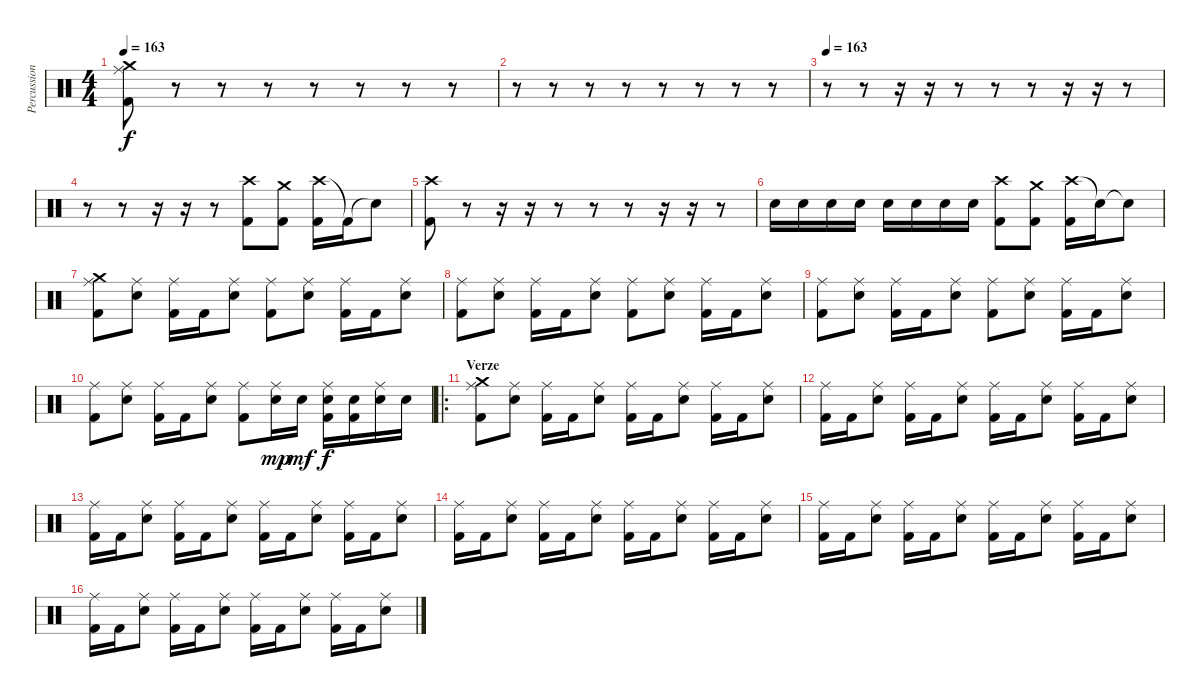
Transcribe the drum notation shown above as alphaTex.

\track ("Percussion" "Percussion") {instrument percussion}
\staff {score}
\articulation defaults
\ts (4 4)
\tempo 163
\clef neutral
\ks c
("Ride (middle)" "Crash medium (hit)" "Kick (hit) 2").8{dy f} r.8 r.8 r.8 r.8 r.8 r.8 r.8 |
r.8 r.8 r.8 r.8 r.8 r.8 r.8 r.8 |
\tempo 163
r.8 r.8 r.16 r.16 r.8 r.8 r.8 r.16 r.16 r.8 |
r.8 r.8 r.16 r.16 r.8 ("Crash high (hit)" "Kick (hit) 2").8 ("Crash medium (hit)" "Kick (hit) 2").8 ("Crash high (hit)" "Kick (hit) 2").16 "Kick (hit) 2"{t}.16 "Snare (hit)"{t}.8 |
("Crash high (hit)" "Kick (hit) 2").8 r.8 r.16 r.16 r.8 r.8 r.8 r.16 r.16 r.8 |
"Electric Snare (hit)".16 "Electric Snare (hit)".16 "Electric Snare (hit)".16 "Electric Snare (hit)".16 "Electric Snare (hit)".16 "Electric Snare (hit)".16 "Electric Snare (hit)".16 "Electric Snare (hit)".16 ("Crash high (hit)" "Kick (hit) 2").8 ("Crash medium (hit)" "Kick (hit) 2").8 ("Crash high (hit)" "Kick (hit) 2").16 "Snare (hit)"{t}.16 "Snare (hit)"{t}.8 |
("Ride (middle)" "Crash medium (hit)" "Kick (hit) 2").8 ("Ride (middle)" "Electric Snare (hit)").8 ("Ride (middle)" "Kick (hit) 2").16 "Kick (hit) 2".16 ("Ride (middle)" "Electric Snare (hit)").8 ("Ride (middle)" "Kick (hit) 2").8 ("Ride (middle)" "Electric Snare (hit)").8 ("Ride (middle)" "Kick (hit) 2").16 "Kick (hit) 2".16 ("Ride (middle)" "Electric Snare (hit)").8 |
("Ride (middle)" "Kick (hit) 2").8 ("Ride (middle)" "Electric Snare (hit)").8 ("Ride (middle)" "Kick (hit) 2").16 "Kick (hit) 2".16 ("Ride (middle)" "Electric Snare (hit)").8 ("Ride (middle)" "Kick (hit) 2").8 ("Ride (middle)" "Electric Snare (hit)").8 ("Ride (middle)" "Kick (hit) 2").16 "Kick (hit) 2".16 ("Ride (middle)" "Electric Snare (hit)").8 |
("Ride (middle)" "Kick (hit) 2").8 ("Ride (middle)" "Electric Snare (hit)").8 ("Ride (middle)" "Kick (hit) 2").16 "Kick (hit) 2".16 ("Ride (middle)" "Electric Snare (hit)").8 ("Ride (middle)" "Kick (hit) 2").8 ("Ride (middle)" "Electric Snare (hit)").8 ("Ride (middle)" "Kick (hit) 2").16 "Kick (hit) 2".16 ("Ride (middle)" "Electric Snare (hit)").8 |
("Ride (middle)" "Kick (hit) 2").8 ("Ride (middle)" "Electric Snare (hit)").8 ("Ride (middle)" "Kick (hit) 2").16 "Kick (hit) 2".16 ("Ride (middle)" "Electric Snare (hit)").8 ("Ride (middle)" "Kick (hit) 2").8 ("Ride (middle)" "Electric Snare (hit)").16{dy mp} "Electric Snare (hit)".16{dy mf} ("Ride (middle)" "Kick (hit) 2" "Electric Snare (hit)").16{dy f} ("Kick (hit) 2" "Electric Snare (hit)").16 ("Ride (middle)" "Electric Snare (hit)").16 "Electric Snare (hit)".16 |
\ro
\section ("" "Verze")
("Ride (middle)" "Crash medium (hit)" "Kick (hit) 2").8 ("Ride (middle)" "Electric Snare (hit)").8 ("Ride (middle)" "Kick (hit) 2").16 "Kick (hit) 2".16 ("Ride (middle)" "Electric Snare (hit)").8 ("Ride (middle)" "Kick (hit) 2").16 "Kick (hit) 2".16 ("Ride (middle)" "Electric Snare (hit)").8 ("Ride (middle)" "Kick (hit) 2").16 "Kick (hit) 2".16 ("Ride (middle)" "Electric Snare (hit)").8 |
("Ride (middle)" "Kick (hit) 2").16 "Kick (hit) 2".16 ("Ride (middle)" "Electric Snare (hit)").8 ("Ride (middle)" "Kick (hit) 2").16 "Kick (hit) 2".16 ("Ride (middle)" "Electric Snare (hit)").8 ("Ride (middle)" "Kick (hit) 2").16 "Kick (hit) 2".16 ("Ride (middle)" "Electric Snare (hit)").8 ("Ride (middle)" "Kick (hit) 2").16 "Kick (hit) 2".16 ("Ride (middle)" "Electric Snare (hit)").8 |
("Ride (middle)" "Kick (hit) 2").16 "Kick (hit) 2".16 ("Ride (middle)" "Electric Snare (hit)").8 ("Ride (middle)" "Kick (hit) 2").16 "Kick (hit) 2".16 ("Ride (middle)" "Electric Snare (hit)").8 ("Ride (middle)" "Kick (hit) 2").16 "Kick (hit) 2".16 ("Ride (middle)" "Electric Snare (hit)").8 ("Ride (middle)" "Kick (hit) 2").16 "Kick (hit) 2".16 ("Ride (middle)" "Electric Snare (hit)").8 |
("Ride (middle)" "Kick (hit) 2").16 "Kick (hit) 2".16 ("Ride (middle)" "Electric Snare (hit)").8 ("Ride (middle)" "Kick (hit) 2").16 "Kick (hit) 2".16 ("Ride (middle)" "Electric Snare (hit)").8 ("Ride (middle)" "Kick (hit) 2").16 "Kick (hit) 2".16 ("Ride (middle)" "Electric Snare (hit)").8 ("Ride (middle)" "Kick (hit) 2").16 "Kick (hit) 2".16 ("Ride (middle)" "Electric Snare (hit)").8 |
("Ride (middle)" "Kick (hit) 2").16 "Kick (hit) 2".16 ("Ride (middle)" "Electric Snare (hit)").8 ("Ride (middle)" "Kick (hit) 2").16 "Kick (hit) 2".16 ("Ride (middle)" "Electric Snare (hit)").8 ("Ride (middle)" "Kick (hit) 2").16 "Kick (hit) 2".16 ("Ride (middle)" "Electric Snare (hit)").8 ("Ride (middle)" "Kick (hit) 2").16 "Kick (hit) 2".16 ("Ride (middle)" "Electric Snare (hit)").8 |
("Ride (middle)" "Kick (hit) 2").16 "Kick (hit) 2".16 ("Ride (middle)" "Electric Snare (hit)").8 ("Ride (middle)" "Kick (hit) 2").16 "Kick (hit) 2".16 ("Ride (middle)" "Electric Snare (hit)").8 ("Ride (middle)" "Kick (hit) 2").16 "Kick (hit) 2".16 ("Ride (middle)" "Electric Snare (hit)").8 ("Ride (middle)" "Kick (hit) 2").16 "Kick (hit) 2".16 ("Ride (middle)" "Electric Snare (hit)").8
